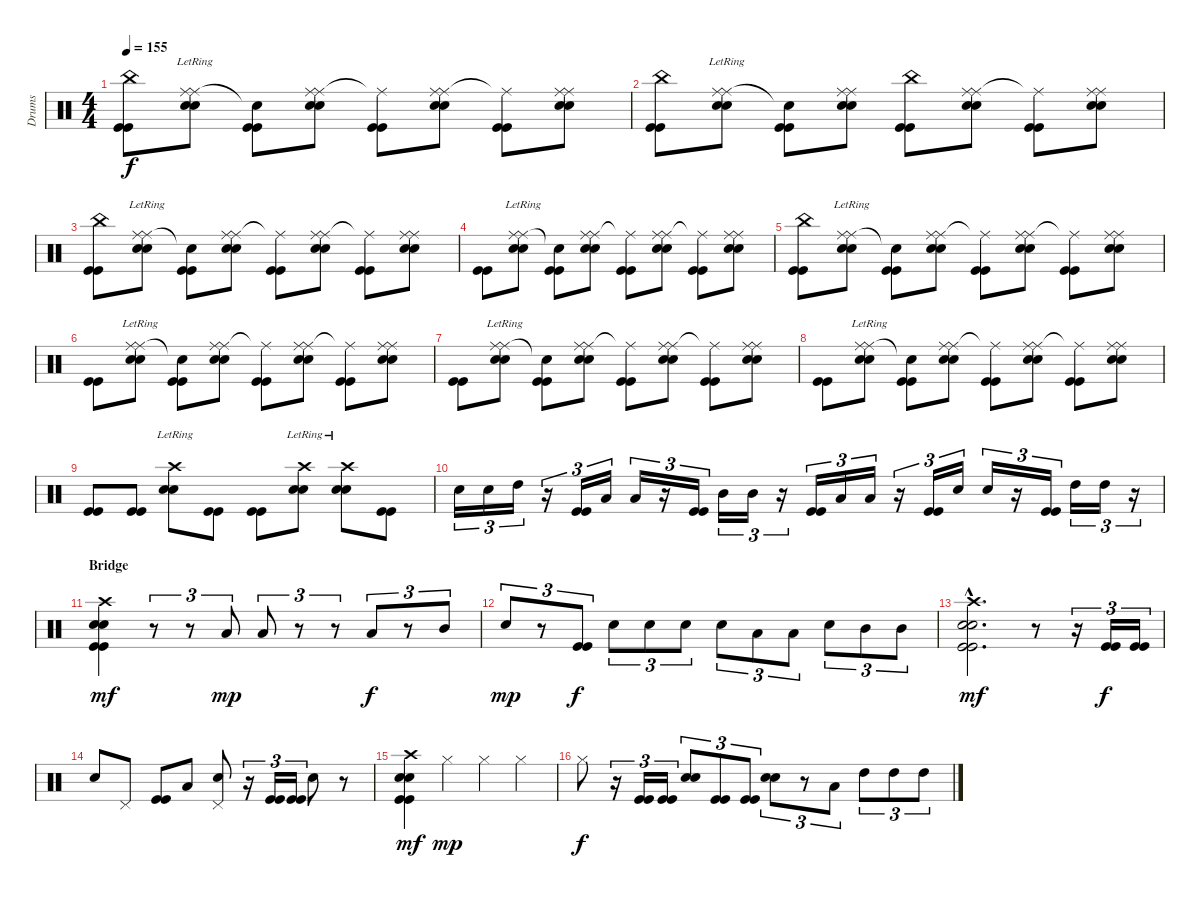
\track ("Drums" "Drums") {instrument percussion}
\staff {score}
\articulation defaults
\ts (4 4)
\tempo 155
\clef neutral
\ks c
("China (hit)" "Kick (hit)" "Kick (hit)").8{dy f} ("Ride (middle)"{lr} "Snare (hit) 2" "Snare (hit) 2" "Ride (middle)").8 ("Snare (hit)"{t} "Kick (hit)" "Kick (hit)").8 ("Ride (middle)" "Snare (hit) 2" "Snare (hit) 2" "Ride (middle)").8 ("Ride (middle)"{t} "Kick (hit)" "Kick (hit)").8 ("Ride (middle)" "Snare (hit) 2" "Snare (hit) 2" "Ride (middle)").8 ("Ride (middle)"{t} "Kick (hit)" "Kick (hit)").8 ("Ride (middle)" "Snare (hit) 2" "Snare (hit) 2" "Ride (middle)").8 |
("China (hit)" "Kick (hit)" "Kick (hit)").8 ("Ride (middle)"{lr} "Snare (hit) 2" "Snare (hit) 2" "Ride (middle)").8 ("Snare (hit)"{t} "Kick (hit)" "Kick (hit)").8 ("Ride (middle)" "Snare (hit) 2" "Snare (hit) 2" "Ride (middle)").8 ("China (hit)" "Kick (hit)" "Kick (hit)").8 ("Ride (middle)" "Snare (hit) 2" "Snare (hit) 2" "Ride (middle)").8 ("Ride (middle)"{t} "Kick (hit)" "Kick (hit)").8 ("Ride (middle)" "Snare (hit) 2" "Snare (hit) 2" "Ride (middle)").8 |
("China (hit)" "Kick (hit)" "Kick (hit)").8 ("Ride (middle)"{lr} "Snare (hit) 2" "Snare (hit) 2" "Ride (middle)").8 ("Snare (hit)"{t} "Kick (hit)" "Kick (hit)").8 ("Ride (middle)" "Snare (hit) 2" "Snare (hit) 2" "Ride (middle)").8 ("Ride (middle)"{t} "Kick (hit)" "Kick (hit)").8 ("Ride (middle)" "Snare (hit) 2" "Snare (hit) 2" "Ride (middle)").8 ("Ride (middle)"{t} "Kick (hit)" "Kick (hit)").8 ("Ride (middle)" "Snare (hit) 2" "Snare (hit) 2" "Ride (middle)").8 |
("Kick (hit)" "Kick (hit)").8 ("Ride (middle)"{lr} "Snare (hit) 2" "Snare (hit) 2" "Ride (middle)").8 ("Snare (hit)"{t} "Kick (hit)" "Kick (hit)").8 ("Ride (middle)" "Snare (hit) 2" "Snare (hit) 2" "Ride (middle)").8 ("Ride (middle)"{t} "Kick (hit)" "Kick (hit)").8 ("Ride (middle)" "Snare (hit) 2" "Snare (hit) 2" "Ride (middle)").8 ("Ride (middle)"{t} "Kick (hit)" "Kick (hit)").8 ("Ride (middle)" "Snare (hit) 2" "Snare (hit) 2" "Ride (middle)").8 |
("China (hit)" "Kick (hit)" "Kick (hit)").8 ("Ride (middle)"{lr} "Snare (hit) 2" "Snare (hit) 2" "Ride (middle)").8 ("Snare (hit)"{t} "Kick (hit)" "Kick (hit)").8 ("Ride (middle)" "Snare (hit) 2" "Snare (hit) 2" "Ride (middle)").8 ("Ride (middle)"{t} "Kick (hit)" "Kick (hit)").8 ("Ride (middle)" "Snare (hit) 2" "Snare (hit) 2" "Ride (middle)").8 ("Ride (middle)"{t} "Kick (hit)" "Kick (hit)").8 ("Ride (middle)" "Snare (hit) 2" "Snare (hit) 2" "Ride (middle)").8 |
("Kick (hit)" "Kick (hit)").8 ("Ride (middle)"{lr} "Snare (hit) 2" "Snare (hit) 2" "Ride (middle)").8 ("Snare (hit)"{t} "Kick (hit)" "Kick (hit)").8 ("Ride (middle)" "Snare (hit) 2" "Snare (hit) 2" "Ride (middle)").8 ("Ride (middle)"{t} "Kick (hit)" "Kick (hit)").8 ("Ride (middle)" "Snare (hit) 2" "Snare (hit) 2" "Ride (middle)").8 ("Ride (middle)"{t} "Kick (hit)" "Kick (hit)").8 ("Ride (middle)" "Snare (hit) 2" "Snare (hit) 2" "Ride (middle)").8 |
("Kick (hit)" "Kick (hit)").8 ("Ride (middle)"{lr} "Snare (hit) 2" "Snare (hit) 2" "Ride (middle)").8 ("Snare (hit)"{t} "Kick (hit)" "Kick (hit)").8 ("Ride (middle)" "Snare (hit) 2" "Snare (hit) 2" "Ride (middle)").8 ("Ride (middle)"{t} "Kick (hit)" "Kick (hit)").8 ("Ride (middle)" "Snare (hit) 2" "Snare (hit) 2" "Ride (middle)").8 ("Ride (middle)"{t} "Kick (hit)" "Kick (hit)").8 ("Ride (middle)" "Snare (hit) 2" "Snare (hit) 2" "Ride (middle)").8 |
("Kick (hit)" "Kick (hit)").8 ("Ride (middle)"{lr} "Snare (hit) 2" "Snare (hit) 2" "Ride (middle)").8 ("Snare (hit)"{t} "Kick (hit)" "Kick (hit)").8 ("Ride (middle)" "Snare (hit) 2" "Snare (hit) 2" "Ride (middle)").8 ("Ride (middle)"{t} "Kick (hit)" "Kick (hit)").8 ("Ride (middle)" "Snare (hit) 2" "Snare (hit) 2" "Ride (middle)").8 ("Ride (middle)"{t} "Kick (hit)" "Kick (hit)").8 ("Ride (middle)" "Snare (hit) 2" "Snare (hit) 2" "Ride (middle)").8 |
("Kick (hit)" "Kick (hit)").8 ("Kick (hit)" "Kick (hit)").8 ("Crash high (hit)"{lr} "Snare (hit) 2" "Snare (hit) 2").8 ("Kick (hit)" "Kick (hit)").8 ("Kick (hit)" "Kick (hit)").8 ("Crash high (hit)"{lr} "Snare (hit) 2" "Snare (hit) 2").8 ("Crash high (hit)"{lr} "Snare (hit) 2" "Snare (hit) 2").8 ("Kick (hit)" "Kick (hit)").8 |
"Snare (hit) 2".16{tu (3 2)} "Snare (hit) 2".16{tu (3 2)} "High Tom (hit)".16{tu (3 2)} r.16{tu (3 2)} ("Kick (hit)" "Kick (hit)").16{tu (3 2)} "Low Tom (hit)".16{tu (3 2)} "Low Tom (hit)".16{tu (3 2)} r.16{tu (3 2)} ("Kick (hit)" "Kick (hit)").16{tu (3 2)} "Mid Tom (hit)".16{tu (3 2)} "Mid Tom (hit)".16{tu (3 2)} r.16{tu (3 2)} ("Kick (hit)" "Kick (hit)").16{tu (3 2)} "Low Tom (hit)".16{tu (3 2)} "Low Tom (hit)".16{tu (3 2)} r.16{tu (3 2)} ("Kick (hit)" "Kick (hit)").16{tu (3 2)} "Snare (hit) 2".16{tu (3 2)} "Snare (hit) 2".16{tu (3 2)} r.16{tu (3 2)} ("Kick (hit)" "Kick (hit)").16{tu (3 2)} "High Tom (hit)".16{tu (3 2)} "High Tom (hit)".16{tu (3 2)} r.16{tu (3 2)} |
\section ("" "Bridge")
("Crash high (hit)" "Snare (hit) 2" "Snare (hit) 2" "Kick (hit)" "Kick (hit)").4{dy mf volume 15} r.8{tu (3 2)} r.8{tu (3 2)} "Low Tom (hit)".8{tu (3 2) dy mp} "Low Tom (hit)".8{tu (3 2)} r.8{tu (3 2)} r.8{tu (3 2)} "Low Tom (hit)".8{tu (3 2) dy f} r.8{tu (3 2)} "Mid Tom (hit)".8{tu (3 2)} |
"Snare (hit) 2".8{tu (3 2) dy mp} r.8{tu (3 2)} ("Kick (hit)" "Kick (hit)").8{tu (3 2) dy f} "Snare (hit) 2".8{tu (3 2)} "Snare (hit) 2".8{tu (3 2)} "Snare (hit) 2".8{tu (3 2)} "Snare (hit) 2".8{tu (3 2)} "Low Tom (hit)".8{tu (3 2)} "Low Tom (hit)".8{tu (3 2)} "Snare (hit) 2".8{tu (3 2)} "Mid Tom (hit)".8{tu (3 2)} "Mid Tom (hit)".8{tu (3 2)} |
("Crash high (hit)"{hac} "Snare (hit) 2"{hac} "Snare (hit) 2"{hac} "Kick (hit)"{hac} "Kick (hit)"{hac}).2{d dy mf} r.8 r.16{tu (3 2)} ("Kick (hit)" "Kick (hit)").16{tu (3 2) dy f} ("Kick (hit)" "Kick (hit)").16{tu (3 2)} |
"Snare (hit) 2".8 "Pedal Hi-Hat (hit)".8 ("Kick (hit)" "Kick (hit)").8 "Low Tom (hit)".8 ("Pedal Hi-Hat (hit)" "Snare (hit) 2").8 r.16{tu (3 2)} ("Kick (hit)" "Kick (hit)").16{tu (3 2)} ("Kick (hit)" "Kick (hit)").16{tu (3 2)} "Snare (hit) 2".8 r.8 |
("Crash high (hit)" "Snare (hit) 2" "Snare (hit) 2" "Kick (hit)" "Kick (hit)").4{dy mf} "Hi-Hat (closed)".4{dy mp} "Hi-Hat (closed)".4 "Hi-Hat (closed)".4 |
"Hi-Hat (closed)".8{dy f} r.16{tu (3 2)} ("Kick (hit)" "Kick (hit)").16{tu (3 2)} ("Kick (hit)" "Kick (hit)").16{tu (3 2)} ("Snare (hit) 2" "Snare (hit) 2").8{tu (3 2)} ("Kick (hit)" "Kick (hit)").8{tu (3 2)} ("Kick (hit)" "Kick (hit)").8{tu (3 2)} ("Snare (hit) 2" "Snare (hit) 2").8{tu (3 2)} r.8{tu (3 2)} "Low Tom (hit)".8{tu (3 2)} "High Tom (hit)".8{tu (3 2)} "High Tom (hit)".8{tu (3 2)} "High Tom (hit)".8{tu (3 2)}
